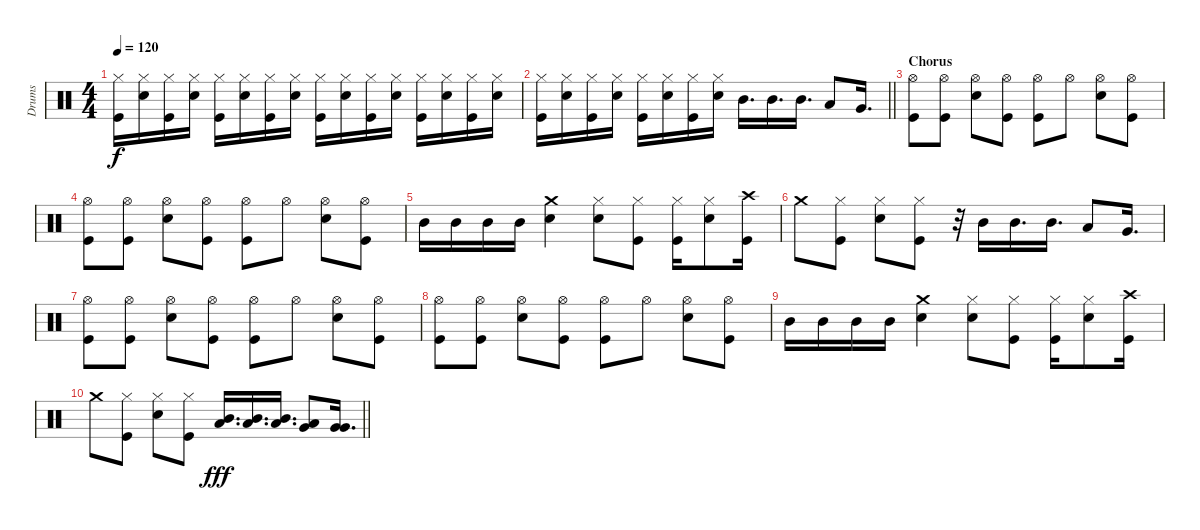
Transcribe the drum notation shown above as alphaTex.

\track ("Drums" "Drums") {instrument percussion}
\staff {score}
\articulation defaults
\ts (4 4)
\tempo 120
\clef neutral
\ks c
("Hi-Hat (closed)" "Kick (hit)").16{dy f} ("Hi-Hat (closed)" "Electric Snare (hit)").16 ("Hi-Hat (closed)" "Kick (hit)").16 ("Hi-Hat (closed)" "Electric Snare (hit)").16 ("Hi-Hat (closed)" "Kick (hit)").16 ("Hi-Hat (closed)" "Electric Snare (hit)").16 ("Hi-Hat (closed)" "Kick (hit)").16 ("Hi-Hat (closed)" "Electric Snare (hit)").16 ("Hi-Hat (closed)" "Kick (hit)").16 ("Hi-Hat (closed)" "Electric Snare (hit)").16 ("Hi-Hat (closed)" "Kick (hit)").16 ("Hi-Hat (closed)" "Electric Snare (hit)").16 ("Hi-Hat (closed)" "Kick (hit)").16 ("Hi-Hat (closed)" "Electric Snare (hit)").16 ("Hi-Hat (closed)" "Kick (hit)").16 ("Hi-Hat (closed)" "Electric Snare (hit)").16 |
\barLineRight lightlight
("Hi-Hat (closed)" "Kick (hit)").16 ("Hi-Hat (closed)" "Electric Snare (hit)").16 ("Hi-Hat (closed)" "Kick (hit)").16 ("Hi-Hat (closed)" "Electric Snare (hit)").16 ("Hi-Hat (closed)" "Kick (hit)").16 ("Hi-Hat (closed)" "Electric Snare (hit)").16 ("Hi-Hat (closed)" "Kick (hit)").16 ("Hi-Hat (closed)" "Electric Snare (hit)").16 "Mid Tom (hit)".16{d} "Mid Tom (hit)".16{d} "Mid Tom (hit)".16{d} "Low Tom (hit)".8 "Very Low Tom (hit)".16{d} |
\section ("" "Chorus")
("Hi-Hat (open)" "Kick (hit)").8 ("Hi-Hat (open)" "Kick (hit)").8 ("Hi-Hat (open)" "Electric Snare (hit)").8 ("Hi-Hat (open)" "Kick (hit)").8 ("Hi-Hat (open)" "Kick (hit)").8 "Hi-Hat (open)".8 ("Hi-Hat (open)" "Electric Snare (hit)").8 ("Hi-Hat (open)" "Kick (hit)").8 |
("Hi-Hat (open)" "Kick (hit)").8 ("Hi-Hat (open)" "Kick (hit)").8 ("Hi-Hat (open)" "Electric Snare (hit)").8 ("Hi-Hat (open)" "Kick (hit)").8 ("Hi-Hat (open)" "Kick (hit)").8 "Hi-Hat (open)".8 ("Hi-Hat (open)" "Electric Snare (hit)").8 ("Hi-Hat (open)" "Kick (hit)").8 |
"Mid Tom (hit)".16 "Mid Tom (hit)".16 "Mid Tom (hit)".16 "Mid Tom (hit)".16 ("Crash medium (hit)" "Electric Snare (hit)").4 ("Hi-Hat (closed)" "Electric Snare (hit)").8 ("Hi-Hat (closed)" "Kick (hit)").8 ("Hi-Hat (closed)" "Kick (hit)").16 ("Hi-Hat (closed)" "Electric Snare (hit)").8 ("Crash high (hit)" "Kick (hit)").16 |
"Crash medium (hit)".8 ("Hi-Hat (closed)" "Kick (hit)").8 ("Hi-Hat (closed)" "Electric Snare (hit)").8 ("Hi-Hat (closed)" "Kick (hit)").8 r.32 "Mid Tom (hit)".16 "Mid Tom (hit)".16{d} "Mid Tom (hit)".16{d} "Low Tom (hit)".8 "Very Low Tom (hit)".16{d} |
("Hi-Hat (open)" "Kick (hit)").8 ("Hi-Hat (open)" "Kick (hit)").8 ("Hi-Hat (open)" "Electric Snare (hit)").8 ("Hi-Hat (open)" "Kick (hit)").8 ("Hi-Hat (open)" "Kick (hit)").8 "Hi-Hat (open)".8 ("Hi-Hat (open)" "Electric Snare (hit)").8 ("Hi-Hat (open)" "Kick (hit)").8 |
("Hi-Hat (open)" "Kick (hit)").8 ("Hi-Hat (open)" "Kick (hit)").8 ("Hi-Hat (open)" "Electric Snare (hit)").8 ("Hi-Hat (open)" "Kick (hit)").8 ("Hi-Hat (open)" "Kick (hit)").8 "Hi-Hat (open)".8 ("Hi-Hat (open)" "Electric Snare (hit)").8 ("Hi-Hat (open)" "Kick (hit)").8 |
"Mid Tom (hit)".16 "Mid Tom (hit)".16 "Mid Tom (hit)".16 "Mid Tom (hit)".16 ("Crash medium (hit)" "Electric Snare (hit)").4 ("Hi-Hat (closed)" "Electric Snare (hit)").8 ("Hi-Hat (closed)" "Kick (hit)").8 ("Hi-Hat (closed)" "Kick (hit)").16 ("Hi-Hat (closed)" "Electric Snare (hit)").8 ("Crash high (hit)" "Kick (hit)").16 |
\barLineRight lightlight "Crash medium (hit)".8
("Hi-Hat (closed)" "Kick (hit)").8 ("Hi-Hat (closed)" "Electric Snare (hit)").8 ("Hi-Hat (closed)" "Kick (hit)").8 ("Low Tom (hit)" "Mid Tom (hit)").16{d dy fff} ("Low Tom (hit)" "Mid Tom (hit)").16{d} ("Low Tom (hit)" "Mid Tom (hit)").16{d} ("Very Low Tom (hit)" "Low Floor Tom (hit)").8 ("Very Low Tom (hit)" "Very Low Tom (hit)").16{d}
